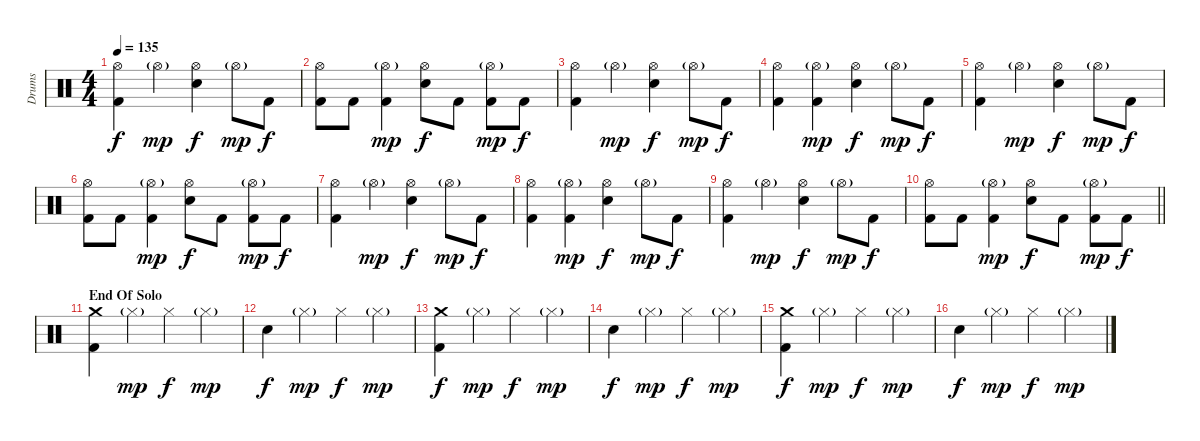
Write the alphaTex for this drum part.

\track ("Drums" "Drums") {instrument percussion}
\staff {score}
\articulation defaults
\ts (4 4)
\tempo 135
\clef neutral
\ks c
("Hi-Hat (open)" "Kick (hit) 2").4{dy f} "Hi-Hat (open)"{g}.4{dy mp} ("Hi-Hat (open)" "Electric Snare (hit)").4{dy f} "Hi-Hat (open)"{g}.8{dy mp} "Kick (hit) 2".8{dy f} |
("Hi-Hat (open)" "Kick (hit) 2").8 "Kick (hit) 2".8 ("Hi-Hat (open)"{g} "Kick (hit) 2").4{dy mp} ("Hi-Hat (open)" "Electric Snare (hit)").8{dy f} "Kick (hit) 2".8 ("Hi-Hat (open)"{g} "Kick (hit) 2").8{dy mp} "Kick (hit) 2".8{dy f} |
("Hi-Hat (open)" "Kick (hit) 2").4 "Hi-Hat (open)"{g}.4{dy mp} ("Hi-Hat (open)" "Electric Snare (hit)").4{dy f} "Hi-Hat (open)"{g}.8{dy mp} "Kick (hit) 2".8{dy f} |
("Hi-Hat (open)" "Kick (hit) 2").4 ("Hi-Hat (open)"{g} "Kick (hit) 2").4{dy mp} ("Hi-Hat (open)" "Electric Snare (hit)").4{dy f} "Hi-Hat (open)"{g}.8{dy mp} "Kick (hit) 2".8{dy f} |
("Hi-Hat (open)" "Kick (hit) 2").4 "Hi-Hat (open)"{g}.4{dy mp} ("Hi-Hat (open)" "Electric Snare (hit)").4{dy f} "Hi-Hat (open)"{g}.8{dy mp} "Kick (hit) 2".8{dy f} |
("Hi-Hat (open)" "Kick (hit) 2").8 "Kick (hit) 2".8 ("Hi-Hat (open)"{g} "Kick (hit) 2").4{dy mp} ("Hi-Hat (open)" "Electric Snare (hit)").8{dy f} "Kick (hit) 2".8 ("Hi-Hat (open)"{g} "Kick (hit) 2").8{dy mp} "Kick (hit) 2".8{dy f} |
("Hi-Hat (open)" "Kick (hit) 2").4 "Hi-Hat (open)"{g}.4{dy mp} ("Hi-Hat (open)" "Electric Snare (hit)").4{dy f} "Hi-Hat (open)"{g}.8{dy mp} "Kick (hit) 2".8{dy f} |
("Hi-Hat (open)" "Kick (hit) 2").4 ("Hi-Hat (open)"{g} "Kick (hit) 2").4{dy mp} ("Hi-Hat (open)" "Electric Snare (hit)").4{dy f} "Hi-Hat (open)"{g}.8{dy mp} "Kick (hit) 2".8{dy f} |
("Hi-Hat (open)" "Kick (hit) 2").4 "Hi-Hat (open)"{g}.4{dy mp} ("Hi-Hat (open)" "Electric Snare (hit)").4{dy f} "Hi-Hat (open)"{g}.8{dy mp} "Kick (hit) 2".8{dy f} |
\barLineRight lightlight
("Hi-Hat (open)" "Kick (hit) 2").8 "Kick (hit) 2".8 ("Hi-Hat (open)"{g} "Kick (hit) 2").4{dy mp} ("Hi-Hat (open)" "Electric Snare (hit)").8{dy f} "Kick (hit) 2".8 ("Hi-Hat (open)"{g} "Kick (hit) 2").8{dy mp} "Kick (hit) 2".8{dy f} |
\section ("" "End Of Solo")
("Crash medium (hit)" "Kick (hit) 2").4 "Hi-Hat (closed)"{g}.4{dy mp} "Hi-Hat (closed)".4{dy f} "Hi-Hat (closed)"{g}.4{dy mp} |
"Electric Snare (hit)".4{dy f} "Hi-Hat (closed)"{g}.4{dy mp} "Hi-Hat (closed)".4{dy f} "Hi-Hat (closed)"{g}.4{dy mp} |
("Crash medium (hit)" "Kick (hit) 2").4{dy f} "Hi-Hat (closed)"{g}.4{dy mp} "Hi-Hat (closed)".4{dy f} "Hi-Hat (closed)"{g}.4{dy mp} |
"Electric Snare (hit)".4{dy f} "Hi-Hat (closed)"{g}.4{dy mp} "Hi-Hat (closed)".4{dy f} "Hi-Hat (closed)"{g}.4{dy mp} |
("Crash medium (hit)" "Kick (hit) 2").4{dy f} "Hi-Hat (closed)"{g}.4{dy mp} "Hi-Hat (closed)".4{dy f} "Hi-Hat (closed)"{g}.4{dy mp} |
"Electric Snare (hit)".4{dy f} "Hi-Hat (closed)"{g}.4{dy mp} "Hi-Hat (closed)".4{dy f} "Hi-Hat (closed)"{g}.4{dy mp}
